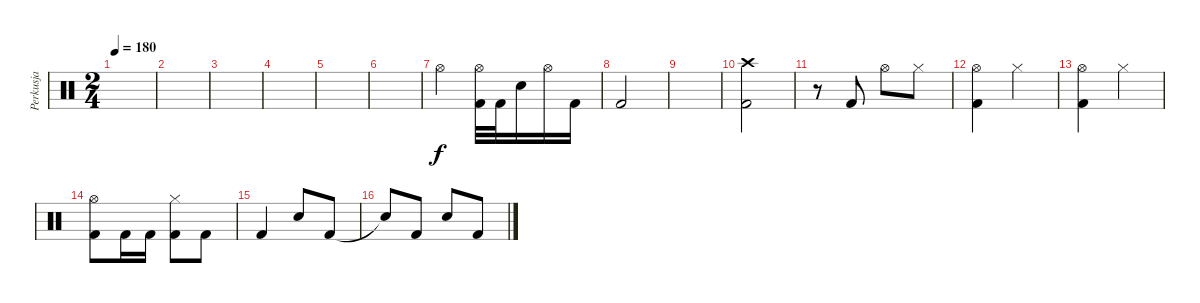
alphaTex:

\track ("Perkusja" "Perkusja") {instrument percussion}
\staff {score}
\articulation defaults
\ts (2 4)
\tempo 180
\clef neutral
\ks c
|
|
|
|
|
|
"Hi-Hat (open)".4 ("Hi-Hat (open)" "Kick (hit) 2").32 "Kick (hit) 2".32 "Snare (hit) 2".16 "Hi-Hat (open)".16 "Kick (hit) 2".16 |
"Kick (hit) 2".2 |
|
("Crash high (hit)" "Kick (hit) 2").2 |
r.8 "Kick (hit) 2".8 "Hi-Hat (open)".8 "Hi-Hat (closed)".8 |
("Hi-Hat (open)" "Kick (hit) 2").4 "Hi-Hat (closed)".4 |
("Hi-Hat (open)" "Kick (hit) 2").4 "Hi-Hat (closed)".4 |
("Hi-Hat (open)" "Kick (hit) 2").8 "Kick (hit) 2".16 "Kick (hit) 2".16 ("Hi-Hat (closed)" "Kick (hit) 2").8 "Kick (hit) 2".8 |
"Kick (hit) 2".4 "Snare (hit) 2".8 "Kick (hit) 2".8 |
"Snare (hit)"{t}.8 "Kick (hit) 2".8 "Snare (hit) 2".8 "Kick (hit) 2".8
